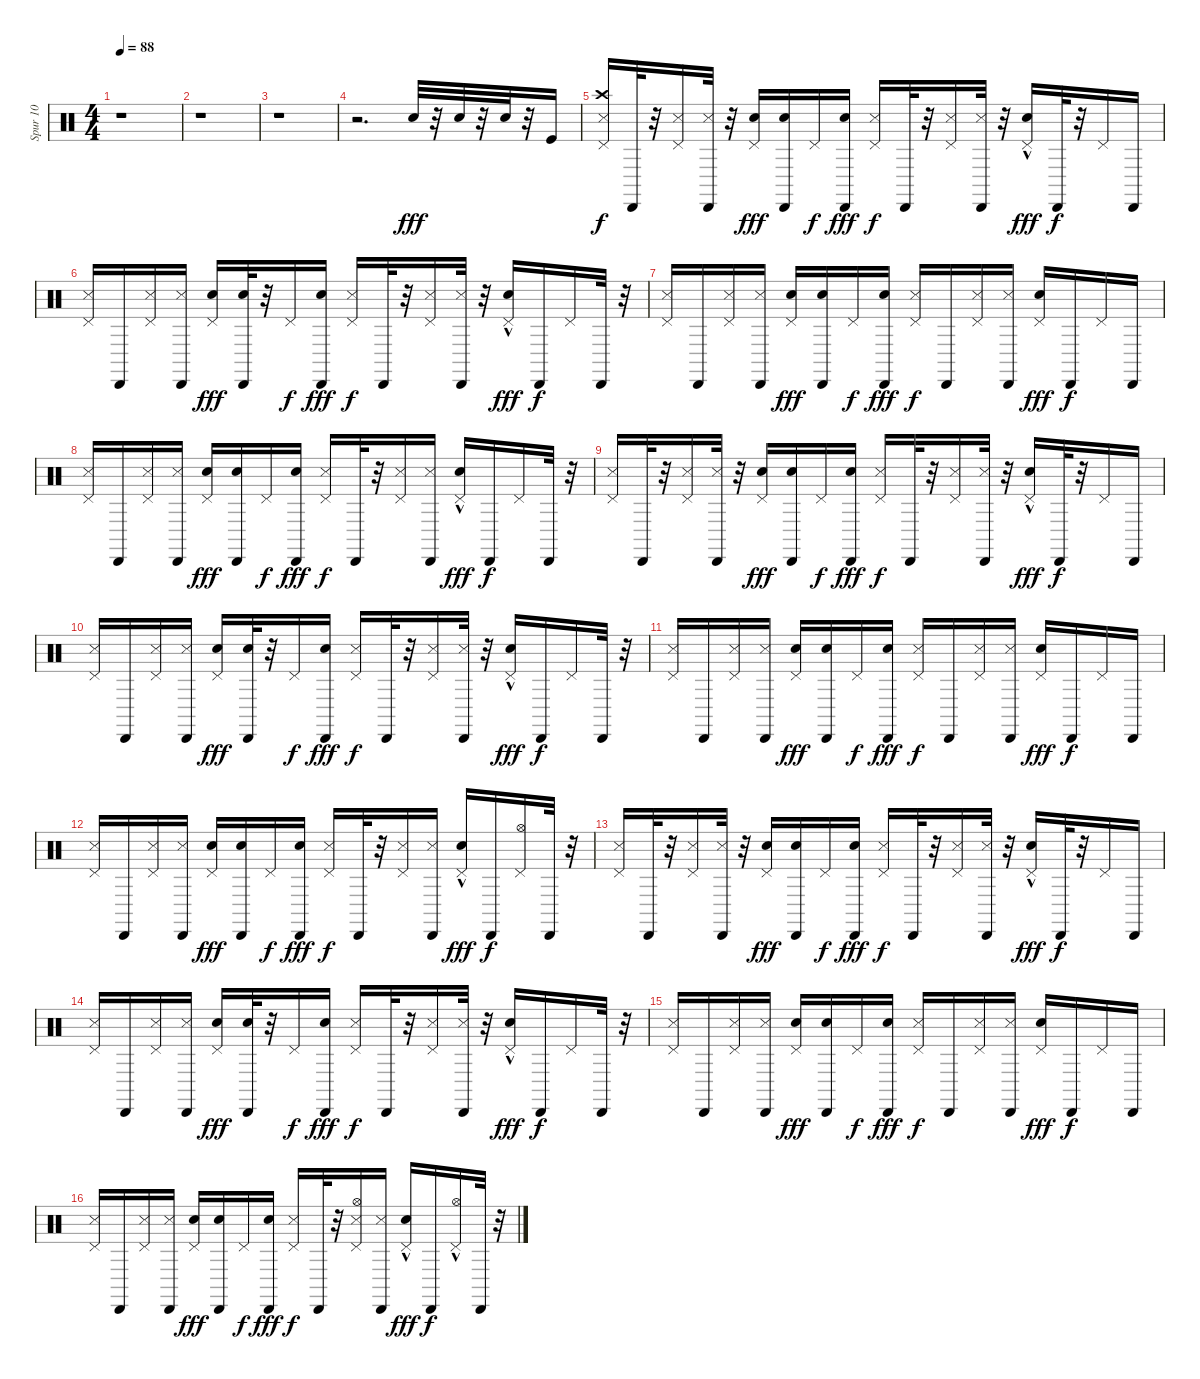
\track ("Spur 10" "Spur 10") {instrument percussion}
\staff {score}
\articulation defaults
\ts (4 4)
\tempo 88
\clef neutral
\ks c
r.1{dy fff} |
r.1 |
r.1 |
r.2{d} "Electric Snare (hit)".32 r.32 "Electric Snare (hit)".32 r.32 "Electric Snare (hit)".32 r.32 "Kick (hit)".16 |
("Pedal Hi-Hat (hit)" "Metronome (hit)" "Crash high (hit)").16{dy f} "Cabasa (hit)".32 r.32 ("Pedal Hi-Hat (hit)" "Metronome (hit)").16 ("Cabasa (hit)" "Metronome (hit)").32 r.32 ("Pedal Hi-Hat (hit)" "Electric Snare (hit)").16{dy fff} ("Cabasa (hit)" "Electric Snare (hit)").16 "Pedal Hi-Hat (hit)".16{dy f} ("Cabasa (hit)" "Electric Snare (hit)").16{dy fff} ("Pedal Hi-Hat (hit)" "Metronome (hit)").16{dy f} "Cabasa (hit)".32 r.32 ("Pedal Hi-Hat (hit)" "Metronome (hit)").16 ("Cabasa (hit)" "Metronome (hit)").32 r.32 ("Pedal Hi-Hat (hit)" "Electric Snare (hit)"{hac}).16{dy fff} "Cabasa (hit)".32{dy f} r.32 "Pedal Hi-Hat (hit)".16 "Cabasa (hit)".16 |
("Pedal Hi-Hat (hit)" "Metronome (hit)").16 "Cabasa (hit)".16 ("Pedal Hi-Hat (hit)" "Metronome (hit)").16 ("Cabasa (hit)" "Metronome (hit)").16 ("Pedal Hi-Hat (hit)" "Electric Snare (hit)").16{dy fff} ("Cabasa (hit)" "Electric Snare (hit)").32 r.32 "Pedal Hi-Hat (hit)".16{dy f} ("Cabasa (hit)" "Electric Snare (hit)").16{dy fff} ("Pedal Hi-Hat (hit)" "Metronome (hit)").16{dy f} "Cabasa (hit)".32 r.32 ("Pedal Hi-Hat (hit)" "Metronome (hit)").16 ("Cabasa (hit)" "Metronome (hit)").32 r.32 ("Pedal Hi-Hat (hit)" "Electric Snare (hit)"{hac}).16{dy fff} "Cabasa (hit)".16{dy f} "Pedal Hi-Hat (hit)".16 "Cabasa (hit)".32 r.32 |
("Pedal Hi-Hat (hit)" "Metronome (hit)").16 "Cabasa (hit)".16 ("Pedal Hi-Hat (hit)" "Metronome (hit)").16 ("Cabasa (hit)" "Metronome (hit)").16 ("Pedal Hi-Hat (hit)" "Electric Snare (hit)").16{dy fff} ("Cabasa (hit)" "Electric Snare (hit)").16 "Pedal Hi-Hat (hit)".16{dy f} ("Cabasa (hit)" "Electric Snare (hit)").16{dy fff} ("Pedal Hi-Hat (hit)" "Metronome (hit)").16{dy f} "Cabasa (hit)".16 ("Pedal Hi-Hat (hit)" "Metronome (hit)").16 ("Cabasa (hit)" "Metronome (hit)").16 ("Pedal Hi-Hat (hit)" "Electric Snare (hit)").16{dy fff} "Cabasa (hit)".16{dy f} "Pedal Hi-Hat (hit)".16 "Cabasa (hit)".16 |
("Pedal Hi-Hat (hit)" "Metronome (hit)").16 "Cabasa (hit)".16 ("Metronome (hit)" "Pedal Hi-Hat (hit)").16 ("Metronome (hit)" "Cabasa (hit)").16 ("Pedal Hi-Hat (hit)" "Electric Snare (hit)").16{dy fff} ("Cabasa (hit)" "Electric Snare (hit)").16 "Pedal Hi-Hat (hit)".16{dy f} ("Cabasa (hit)" "Electric Snare (hit)").16{dy fff} ("Metronome (hit)" "Pedal Hi-Hat (hit)").16{dy f} "Cabasa (hit)".32 r.32 ("Pedal Hi-Hat (hit)" "Metronome (hit)").16 ("Cabasa (hit)" "Metronome (hit)").16 ("Pedal Hi-Hat (hit)" "Electric Snare (hit)"{hac}).16{dy fff} "Cabasa (hit)".16{dy f} "Pedal Hi-Hat (hit)".16 "Cabasa (hit)".32 r.32 |
("Pedal Hi-Hat (hit)" "Metronome (hit)").16 "Cabasa (hit)".32 r.32 ("Pedal Hi-Hat (hit)" "Metronome (hit)").16 ("Cabasa (hit)" "Metronome (hit)").32 r.32 ("Pedal Hi-Hat (hit)" "Electric Snare (hit)").16{dy fff} ("Cabasa (hit)" "Electric Snare (hit)").16 "Pedal Hi-Hat (hit)".16{dy f} ("Cabasa (hit)" "Electric Snare (hit)").16{dy fff} ("Pedal Hi-Hat (hit)" "Metronome (hit)").16{dy f} "Cabasa (hit)".32 r.32 ("Pedal Hi-Hat (hit)" "Metronome (hit)").16 ("Cabasa (hit)" "Metronome (hit)").32 r.32 ("Pedal Hi-Hat (hit)" "Electric Snare (hit)"{hac}).16{dy fff} "Cabasa (hit)".32{dy f} r.32 "Pedal Hi-Hat (hit)".16 "Cabasa (hit)".16 |
("Pedal Hi-Hat (hit)" "Metronome (hit)").16 "Cabasa (hit)".16 ("Pedal Hi-Hat (hit)" "Metronome (hit)").16 ("Cabasa (hit)" "Metronome (hit)").16 ("Pedal Hi-Hat (hit)" "Electric Snare (hit)").16{dy fff} ("Cabasa (hit)" "Electric Snare (hit)").32 r.32 "Pedal Hi-Hat (hit)".16{dy f} ("Cabasa (hit)" "Electric Snare (hit)").16{dy fff} ("Pedal Hi-Hat (hit)" "Metronome (hit)").16{dy f} "Cabasa (hit)".32 r.32 ("Pedal Hi-Hat (hit)" "Metronome (hit)").16 ("Cabasa (hit)" "Metronome (hit)").32 r.32 ("Pedal Hi-Hat (hit)" "Electric Snare (hit)"{hac}).16{dy fff} "Cabasa (hit)".16{dy f} "Pedal Hi-Hat (hit)".16 "Cabasa (hit)".32 r.32 |
("Pedal Hi-Hat (hit)" "Metronome (hit)").16 "Cabasa (hit)".16 ("Pedal Hi-Hat (hit)" "Metronome (hit)").16 ("Cabasa (hit)" "Metronome (hit)").16 ("Pedal Hi-Hat (hit)" "Electric Snare (hit)").16{dy fff} ("Cabasa (hit)" "Electric Snare (hit)").16 "Pedal Hi-Hat (hit)".16{dy f} ("Cabasa (hit)" "Electric Snare (hit)").16{dy fff} ("Pedal Hi-Hat (hit)" "Metronome (hit)").16{dy f} "Cabasa (hit)".16 ("Pedal Hi-Hat (hit)" "Metronome (hit)").16 ("Cabasa (hit)" "Metronome (hit)").16 ("Pedal Hi-Hat (hit)" "Electric Snare (hit)").16{dy fff} "Cabasa (hit)".16{dy f} "Pedal Hi-Hat (hit)".16 "Cabasa (hit)".16 |
("Pedal Hi-Hat (hit)" "Metronome (hit)").16 "Cabasa (hit)".16 ("Metronome (hit)" "Pedal Hi-Hat (hit)").16 ("Metronome (hit)" "Cabasa (hit)").16 ("Pedal Hi-Hat (hit)" "Electric Snare (hit)").16{dy fff} ("Cabasa (hit)" "Electric Snare (hit)").16 "Pedal Hi-Hat (hit)".16{dy f} ("Cabasa (hit)" "Electric Snare (hit)").16{dy fff} ("Metronome (hit)" "Pedal Hi-Hat (hit)").16{dy f} "Cabasa (hit)".32 r.32 ("Pedal Hi-Hat (hit)" "Metronome (hit)").16 ("Cabasa (hit)" "Metronome (hit)").16 ("Pedal Hi-Hat (hit)" "Electric Snare (hit)"{hac}).16{dy fff} "Cabasa (hit)".16{dy f} ("Pedal Hi-Hat (hit)" "Hi-Hat (open)").16 "Cabasa (hit)".32 r.32 |
("Pedal Hi-Hat (hit)" "Metronome (hit)").16 "Cabasa (hit)".32 r.32 ("Pedal Hi-Hat (hit)" "Metronome (hit)").16 ("Cabasa (hit)" "Metronome (hit)").32 r.32 ("Pedal Hi-Hat (hit)" "Electric Snare (hit)").16{dy fff} ("Cabasa (hit)" "Electric Snare (hit)").16 "Pedal Hi-Hat (hit)".16{dy f} ("Cabasa (hit)" "Electric Snare (hit)").16{dy fff} ("Pedal Hi-Hat (hit)" "Metronome (hit)").16{dy f} "Cabasa (hit)".32 r.32 ("Pedal Hi-Hat (hit)" "Metronome (hit)").16 ("Cabasa (hit)" "Metronome (hit)").32 r.32 ("Pedal Hi-Hat (hit)" "Electric Snare (hit)"{hac}).16{dy fff} "Cabasa (hit)".32{dy f} r.32 "Pedal Hi-Hat (hit)".16 "Cabasa (hit)".16 |
("Pedal Hi-Hat (hit)" "Metronome (hit)").16 "Cabasa (hit)".16 ("Pedal Hi-Hat (hit)" "Metronome (hit)").16 ("Cabasa (hit)" "Metronome (hit)").16 ("Pedal Hi-Hat (hit)" "Electric Snare (hit)").16{dy fff} ("Cabasa (hit)" "Electric Snare (hit)").32 r.32 "Pedal Hi-Hat (hit)".16{dy f} ("Cabasa (hit)" "Electric Snare (hit)").16{dy fff} ("Pedal Hi-Hat (hit)" "Metronome (hit)").16{dy f} "Cabasa (hit)".32 r.32 ("Pedal Hi-Hat (hit)" "Metronome (hit)").16 ("Cabasa (hit)" "Metronome (hit)").32 r.32 ("Pedal Hi-Hat (hit)" "Electric Snare (hit)"{hac}).16{dy fff} "Cabasa (hit)".16{dy f} "Pedal Hi-Hat (hit)".16 "Cabasa (hit)".32 r.32 |
("Pedal Hi-Hat (hit)" "Metronome (hit)").16 "Cabasa (hit)".16 ("Pedal Hi-Hat (hit)" "Metronome (hit)").16 ("Cabasa (hit)" "Metronome (hit)").16 ("Pedal Hi-Hat (hit)" "Electric Snare (hit)").16{dy fff} ("Cabasa (hit)" "Electric Snare (hit)").16 "Pedal Hi-Hat (hit)".16{dy f} ("Cabasa (hit)" "Electric Snare (hit)").16{dy fff} ("Pedal Hi-Hat (hit)" "Metronome (hit)").16{dy f} "Cabasa (hit)".16 ("Pedal Hi-Hat (hit)" "Metronome (hit)").16 ("Cabasa (hit)" "Metronome (hit)").16 ("Pedal Hi-Hat (hit)" "Electric Snare (hit)").16{dy fff} "Cabasa (hit)".16{dy f} "Pedal Hi-Hat (hit)".16 "Cabasa (hit)".16 |
("Pedal Hi-Hat (hit)" "Metronome (hit)").16 "Cabasa (hit)".16 ("Metronome (hit)" "Pedal Hi-Hat (hit)").16 ("Metronome (hit)" "Cabasa (hit)").16 ("Pedal Hi-Hat (hit)" "Electric Snare (hit)").16{dy fff} ("Cabasa (hit)" "Electric Snare (hit)").16 "Pedal Hi-Hat (hit)".16{dy f} ("Cabasa (hit)" "Electric Snare (hit)").16{dy fff} ("Metronome (hit)" "Pedal Hi-Hat (hit)").16{dy f} "Cabasa (hit)".32 r.32 ("Pedal Hi-Hat (hit)" "Metronome (hit)" "Hi-Hat (open)").16 ("Cabasa (hit)" "Metronome (hit)").16 ("Pedal Hi-Hat (hit)" "Electric Snare (hit)"{hac}).16{dy fff} "Cabasa (hit)".16{dy f} ("Pedal Hi-Hat (hit)" "Hi-Hat (open)"{hac}).16 "Cabasa (hit)".32 r.32
